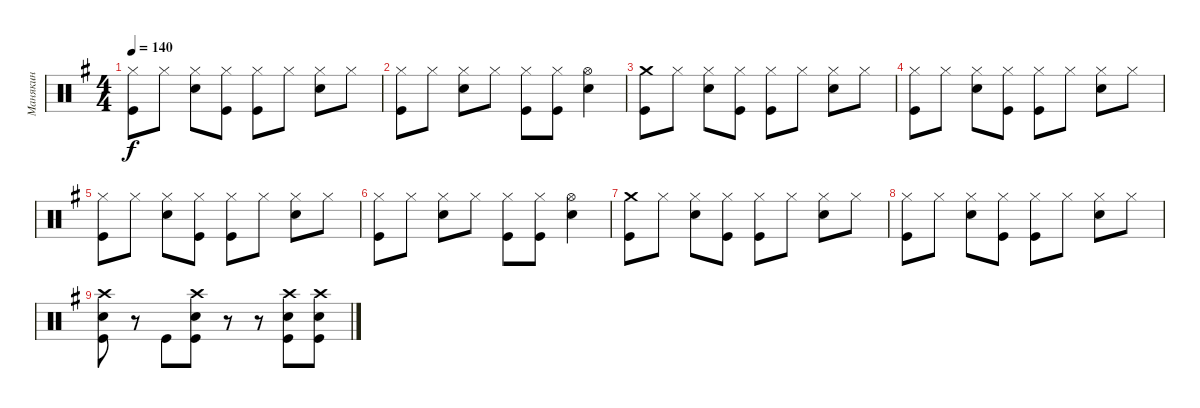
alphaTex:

\track ("Манякин" "Манякин") {instrument percussion}
\staff {score}
\articulation defaults
\ts (4 4)
\tempo 140
\clef neutral
\ks g
("Hi-Hat (closed)" "Kick (hit)").8{dy f} "Hi-Hat (closed)".8 ("Hi-Hat (closed)" "Snare (hit) 2").8 ("Hi-Hat (closed)" "Kick (hit)").8 ("Hi-Hat (closed)" "Kick (hit)").8 "Hi-Hat (closed)".8 ("Hi-Hat (closed)" "Snare (hit) 2").8 "Hi-Hat (closed)".8 |
("Hi-Hat (closed)" "Kick (hit)").8 "Hi-Hat (closed)".8 ("Hi-Hat (closed)" "Snare (hit) 2").8 "Hi-Hat (closed)".8 ("Hi-Hat (closed)" "Kick (hit)").8 ("Hi-Hat (closed)" "Kick (hit)").8 ("Hi-Hat (open)" "Snare (hit) 2").4 |
("Crash medium (hit)" "Kick (hit)").8 "Hi-Hat (closed)".8 ("Hi-Hat (closed)" "Snare (hit) 2").8 ("Hi-Hat (closed)" "Kick (hit)").8 ("Hi-Hat (closed)" "Kick (hit)").8 "Hi-Hat (closed)".8 ("Hi-Hat (closed)" "Snare (hit) 2").8 "Hi-Hat (closed)".8 |
("Hi-Hat (closed)" "Kick (hit)").8 "Hi-Hat (closed)".8 ("Hi-Hat (closed)" "Snare (hit) 2").8 ("Hi-Hat (closed)" "Kick (hit)").8 ("Hi-Hat (closed)" "Kick (hit)").8 "Hi-Hat (closed)".8 ("Hi-Hat (closed)" "Snare (hit) 2").8 "Hi-Hat (closed)".8 |
("Hi-Hat (closed)" "Kick (hit)").8 "Hi-Hat (closed)".8 ("Hi-Hat (closed)" "Snare (hit) 2").8 ("Hi-Hat (closed)" "Kick (hit)").8 ("Hi-Hat (closed)" "Kick (hit)").8 "Hi-Hat (closed)".8 ("Hi-Hat (closed)" "Snare (hit) 2").8 "Hi-Hat (closed)".8 |
("Hi-Hat (closed)" "Kick (hit)").8 "Hi-Hat (closed)".8 ("Hi-Hat (closed)" "Snare (hit) 2").8 "Hi-Hat (closed)".8 ("Hi-Hat (closed)" "Kick (hit)").8 ("Hi-Hat (closed)" "Kick (hit)").8 ("Hi-Hat (open)" "Snare (hit) 2").4 |
("Crash medium (hit)" "Kick (hit)").8 "Hi-Hat (closed)".8 ("Hi-Hat (closed)" "Snare (hit) 2").8 ("Hi-Hat (closed)" "Kick (hit)").8 ("Hi-Hat (closed)" "Kick (hit)").8 "Hi-Hat (closed)".8 ("Hi-Hat (closed)" "Snare (hit) 2").8 "Hi-Hat (closed)".8 |
("Hi-Hat (closed)" "Kick (hit)").8 "Hi-Hat (closed)".8 ("Hi-Hat (closed)" "Snare (hit) 2").8 ("Hi-Hat (closed)" "Kick (hit)").8 ("Hi-Hat (closed)" "Kick (hit)").8 "Hi-Hat (closed)".8 ("Hi-Hat (closed)" "Snare (hit) 2").8 "Hi-Hat (closed)".8 |
("Crash high (hit)" "Snare (hit) 2" "Kick (hit)").8 r.8 "Kick (hit)".8 ("Crash high (hit)" "Snare (hit) 2" "Kick (hit)").8 r.8 r.8 ("Crash high (hit)" "Snare (hit) 2" "Kick (hit)").8 ("Crash high (hit)" "Snare (hit) 2" "Kick (hit)").8
